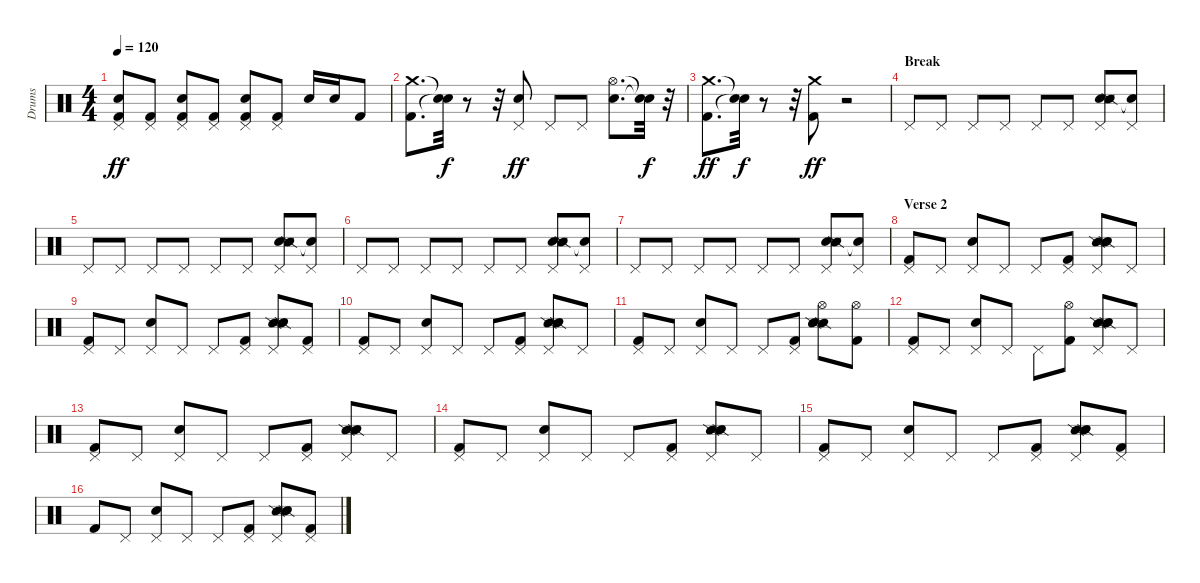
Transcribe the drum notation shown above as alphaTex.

\track ("Drums" "Drums") {instrument percussion}
\staff {score}
\articulation defaults
\ts (4 4)
\tempo 120
\clef neutral
\ks c
("Pedal Hi-Hat (hit)" "Snare (hit) 2" "Kick (hit) 2").8{dy ff} ("Pedal Hi-Hat (hit)" "Kick (hit) 2").8 ("Pedal Hi-Hat (hit)" "Snare (hit) 2" "Kick (hit) 2").8 ("Pedal Hi-Hat (hit)" "Kick (hit) 2").8 ("Pedal Hi-Hat (hit)" "Snare (hit) 2" "Kick (hit) 2").8 ("Pedal Hi-Hat (hit)" "Kick (hit) 2").8 "Snare (hit) 2".16 "Snare (hit) 2".16 "Kick (hit) 2".8 |
("Crash medium (hit)" "Kick (hit) 2").8{d} ("Snare (hit)"{t} "Snare (hit)"{t}).32{dy f} r.8 r.32 ("Pedal Hi-Hat (hit)" "Snare (hit) 2").8{dy ff} "Pedal Hi-Hat (hit)".8 "Pedal Hi-Hat (hit)".8 ("Hi-Hat (open)" "Snare (hit) 2").8{d} ("Snare (hit)"{t} "Snare (hit)"{t}).32{dy f} r.32 |
("Crash medium (hit)" "Kick (hit) 2").8{d dy ff} ("Snare (hit)"{t} "Snare (hit)"{t}).32{dy f} r.8 r.32 ("Crash medium (hit)" "Kick (hit) 2").8{dy ff} r.2 |
\section ("" "Break")
"Pedal Hi-Hat (hit)".8 "Pedal Hi-Hat (hit)".8 "Pedal Hi-Hat (hit)".8 "Pedal Hi-Hat (hit)".8 "Pedal Hi-Hat (hit)".8 "Pedal Hi-Hat (hit)".8 ("Pedal Hi-Hat (hit)" "Hand Clap (hit)" "Snare (side stick) 2" "Metronome (hit)").8 ("Pedal Hi-Hat (hit)" "Snare (hit)"{t}).8 |
"Pedal Hi-Hat (hit)".8 "Pedal Hi-Hat (hit)".8 "Pedal Hi-Hat (hit)".8 "Pedal Hi-Hat (hit)".8 "Pedal Hi-Hat (hit)".8 "Pedal Hi-Hat (hit)".8 ("Pedal Hi-Hat (hit)" "Hand Clap (hit)" "Snare (side stick) 2" "Metronome (hit)").8 ("Pedal Hi-Hat (hit)" "Snare (hit)"{t}).8 |
"Pedal Hi-Hat (hit)".8 "Pedal Hi-Hat (hit)".8 "Pedal Hi-Hat (hit)".8 "Pedal Hi-Hat (hit)".8 "Pedal Hi-Hat (hit)".8 "Pedal Hi-Hat (hit)".8 ("Pedal Hi-Hat (hit)" "Hand Clap (hit)" "Snare (side stick) 2" "Metronome (hit)").8 ("Pedal Hi-Hat (hit)" "Snare (hit)"{t}).8 |
"Pedal Hi-Hat (hit)".8 "Pedal Hi-Hat (hit)".8 "Pedal Hi-Hat (hit)".8 "Pedal Hi-Hat (hit)".8 "Pedal Hi-Hat (hit)".8 "Pedal Hi-Hat (hit)".8 ("Pedal Hi-Hat (hit)" "Hand Clap (hit)" "Snare (side stick) 2" "Metronome (hit)").8 ("Pedal Hi-Hat (hit)" "Snare (hit)"{t}).8 |
\section ("" "Verse 2")
("Pedal Hi-Hat (hit)" "Kick (hit) 2").8 "Pedal Hi-Hat (hit)".8 ("Pedal Hi-Hat (hit)" "Snare (hit) 2").8 "Pedal Hi-Hat (hit)".8 "Pedal Hi-Hat (hit)".8 ("Pedal Hi-Hat (hit)" "Kick (hit) 2").8 ("Snare (side stick) 2" "Snare (side stick) 2" "Pedal Hi-Hat (hit)" "Snare (hit) 2").8 "Pedal Hi-Hat (hit)".8 |
("Pedal Hi-Hat (hit)" "Kick (hit) 2").8 "Pedal Hi-Hat (hit)".8 ("Pedal Hi-Hat (hit)" "Snare (hit) 2").8 "Pedal Hi-Hat (hit)".8 "Pedal Hi-Hat (hit)".8 ("Pedal Hi-Hat (hit)" "Kick (hit) 2").8 ("Snare (side stick) 2" "Snare (side stick) 2" "Pedal Hi-Hat (hit)" "Snare (hit) 2").8 ("Pedal Hi-Hat (hit)" "Kick (hit) 2").8 |
("Pedal Hi-Hat (hit)" "Kick (hit) 2").8 "Pedal Hi-Hat (hit)".8 ("Pedal Hi-Hat (hit)" "Snare (hit) 2").8 "Pedal Hi-Hat (hit)".8 "Pedal Hi-Hat (hit)".8 ("Pedal Hi-Hat (hit)" "Kick (hit) 2").8 ("Snare (side stick) 2" "Snare (side stick) 2" "Pedal Hi-Hat (hit)" "Snare (hit) 2").8 "Pedal Hi-Hat (hit)".8 |
("Pedal Hi-Hat (hit)" "Kick (hit) 2").8 "Pedal Hi-Hat (hit)".8 ("Pedal Hi-Hat (hit)" "Snare (hit) 2").8 "Pedal Hi-Hat (hit)".8 "Pedal Hi-Hat (hit)".8 ("Pedal Hi-Hat (hit)" "Kick (hit) 2").8 ("Snare (side stick) 2" "Snare (side stick) 2" "Hi-Hat (open)" "Snare (hit) 2").8 ("Hi-Hat (open)" "Kick (hit) 2").8 |
("Pedal Hi-Hat (hit)" "Kick (hit) 2").8 "Pedal Hi-Hat (hit)".8 ("Pedal Hi-Hat (hit)" "Snare (hit) 2").8 "Pedal Hi-Hat (hit)".8 "Pedal Hi-Hat (hit)".8 ("Hi-Hat (open)" "Kick (hit) 2").8 ("Snare (side stick) 2" "Snare (side stick) 2" "Pedal Hi-Hat (hit)" "Snare (hit) 2").8 "Pedal Hi-Hat (hit)".8 |
("Pedal Hi-Hat (hit)" "Kick (hit) 2").8 "Pedal Hi-Hat (hit)".8 ("Pedal Hi-Hat (hit)" "Snare (hit) 2").8 "Pedal Hi-Hat (hit)".8 "Pedal Hi-Hat (hit)".8 ("Pedal Hi-Hat (hit)" "Kick (hit) 2").8 ("Snare (side stick) 2" "Snare (side stick) 2" "Pedal Hi-Hat (hit)" "Snare (hit) 2").8 "Pedal Hi-Hat (hit)".8 |
("Pedal Hi-Hat (hit)" "Kick (hit) 2").8 "Pedal Hi-Hat (hit)".8 ("Pedal Hi-Hat (hit)" "Snare (hit) 2").8 "Pedal Hi-Hat (hit)".8 "Pedal Hi-Hat (hit)".8 ("Pedal Hi-Hat (hit)" "Kick (hit) 2").8 ("Snare (side stick) 2" "Snare (side stick) 2" "Pedal Hi-Hat (hit)" "Snare (hit) 2").8 "Pedal Hi-Hat (hit)".8 |
("Pedal Hi-Hat (hit)" "Kick (hit) 2").8 "Pedal Hi-Hat (hit)".8 ("Pedal Hi-Hat (hit)" "Snare (hit) 2").8 "Pedal Hi-Hat (hit)".8 "Pedal Hi-Hat (hit)".8 ("Pedal Hi-Hat (hit)" "Kick (hit) 2").8 ("Snare (side stick) 2" "Snare (side stick) 2" "Pedal Hi-Hat (hit)" "Snare (hit) 2").8 ("Pedal Hi-Hat (hit)" "Kick (hit) 2").8 |
"Kick (hit) 2".8 "Pedal Hi-Hat (hit)".8 ("Pedal Hi-Hat (hit)" "Snare (hit) 2").8 "Pedal Hi-Hat (hit)".8 "Pedal Hi-Hat (hit)".8 ("Pedal Hi-Hat (hit)" "Kick (hit) 2").8 ("Snare (side stick) 2" "Snare (side stick) 2" "Pedal Hi-Hat (hit)" "Snare (hit) 2").8 ("Pedal Hi-Hat (hit)" "Kick (hit) 2").8
